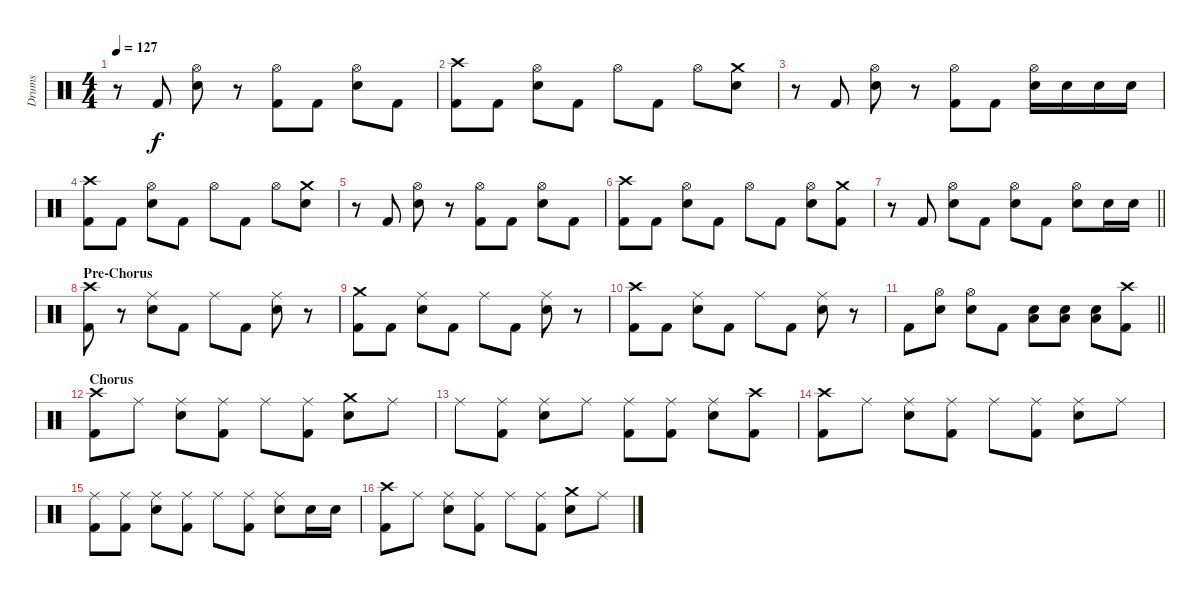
\track ("Drums" "Drums") {instrument percussion}
\staff {score}
\articulation defaults
\ts (4 4)
\tempo 127
\clef neutral
\ks c
r.8{dy f} "Kick (hit) 2".8 ("Hi-Hat (open)" "Electric Snare (hit)").8 r.8 ("Hi-Hat (open)" "Kick (hit) 2").8 "Kick (hit) 2".8 ("Hi-Hat (open)" "Electric Snare (hit)").8 "Kick (hit) 2".8 |
("Crash high (hit)" "Kick (hit) 2").8 "Kick (hit) 2".8 ("Hi-Hat (open)" "Electric Snare (hit)").8 "Kick (hit) 2".8 "Hi-Hat (open)".8 "Kick (hit) 2".8 "Hi-Hat (open)".8 ("Crash medium (hit)" "Electric Snare (hit)").8 |
r.8 "Kick (hit) 2".8 ("Hi-Hat (open)" "Electric Snare (hit)").8 r.8 ("Hi-Hat (open)" "Kick (hit) 2").8 "Kick (hit) 2".8 ("Hi-Hat (open)" "Electric Snare (hit)").16 "Electric Snare (hit)".16 "Electric Snare (hit)".16 "Electric Snare (hit)".16 |
("Crash high (hit)" "Kick (hit) 2").8 "Kick (hit) 2".8 ("Hi-Hat (open)" "Electric Snare (hit)").8 "Kick (hit) 2".8 "Hi-Hat (open)".8 "Kick (hit) 2".8 "Hi-Hat (open)".8 ("Crash medium (hit)" "Electric Snare (hit)").8 |
r.8 "Kick (hit) 2".8 ("Hi-Hat (open)" "Electric Snare (hit)").8 r.8 ("Hi-Hat (open)" "Kick (hit) 2").8 "Kick (hit) 2".8 ("Hi-Hat (open)" "Electric Snare (hit)").8 "Kick (hit) 2".8 |
("Crash high (hit)" "Kick (hit) 2").8 "Kick (hit) 2".8 ("Hi-Hat (open)" "Electric Snare (hit)").8 "Kick (hit) 2".8 "Hi-Hat (open)".8 "Kick (hit) 2".8 ("Hi-Hat (open)" "Electric Snare (hit)").8 ("Crash medium (hit)" "Kick (hit) 2").8 |
\barLineRight lightlight
r.8 "Kick (hit) 2".8 ("Hi-Hat (open)" "Electric Snare (hit)").8 "Kick (hit) 2".8 ("Hi-Hat (open)" "Electric Snare (hit)").8 "Kick (hit) 2".8 ("Hi-Hat (open)" "Electric Snare (hit)").8 "Electric Snare (hit)".16 "Electric Snare (hit)".16 |
\section ("" "Pre-Chorus")
("Crash high (hit)" "Kick (hit) 2").8 r.8 ("Ride (middle)" "Electric Snare (hit)").8 "Kick (hit) 2".8 "Ride (middle)".8 "Kick (hit) 2".8 ("Ride (middle)" "Electric Snare (hit)").8 r.8 |
("Crash medium (hit)" "Kick (hit) 2").8 "Kick (hit) 2".8 ("Ride (middle)" "Electric Snare (hit)").8 "Kick (hit) 2".8 "Ride (middle)".8 "Kick (hit) 2".8 ("Ride (middle)" "Electric Snare (hit)").8 r.8 |
("Crash high (hit)" "Kick (hit) 2").8 "Kick (hit) 2".8 ("Ride (middle)" "Electric Snare (hit)").8 "Kick (hit) 2".8 "Ride (middle)".8 "Kick (hit) 2".8 ("Ride (middle)" "Electric Snare (hit)").8 r.8 |
\barLineRight lightlight "Kick (hit) 2".8
("Hi-Hat (open)" "Electric Snare (hit)").8 ("Hi-Hat (open)" "Electric Snare (hit)").8 "Kick (hit) 2".8 ("Low Floor Tom (hit)" "Electric Snare (hit)").8 ("Low Floor Tom (hit)" "Electric Snare (hit)").8 ("Low Floor Tom (hit)" "Electric Snare (hit)").8 ("Crash high (hit)" "Kick (hit) 2").8 |
\section ("" "Chorus")
("Crash high (hit)" "Kick (hit) 2").8 "Ride (middle)".8 ("Ride (middle)" "Electric Snare (hit)").8 ("Ride (middle)" "Kick (hit) 2").8 "Ride (middle)".8 ("Ride (middle)" "Kick (hit) 2").8 ("Crash medium (hit)" "Electric Snare (hit)").8 "Ride (middle)".8 |
"Ride (middle)".8 ("Ride (middle)" "Kick (hit) 2").8 ("Ride (middle)" "Electric Snare (hit)").8 "Ride (middle)".8 ("Ride (middle)" "Kick (hit) 2").8 ("Ride (middle)" "Kick (hit) 2").8 ("Ride (middle)" "Electric Snare (hit)").8 ("Crash high (hit)" "Kick (hit) 2").8 |
("Crash high (hit)" "Kick (hit) 2").8 "Ride (middle)".8 ("Ride (middle)" "Electric Snare (hit)").8 ("Ride (middle)" "Kick (hit) 2").8 "Ride (middle)".8 ("Ride (middle)" "Kick (hit) 2").8 ("Ride (middle)" "Electric Snare (hit)").8 "Ride (middle)".8 |
("Ride (middle)" "Kick (hit) 2").8 ("Ride (middle)" "Kick (hit) 2").8 ("Ride (middle)" "Electric Snare (hit)").8 ("Ride (middle)" "Kick (hit) 2").8 "Ride (middle)".8 ("Ride (middle)" "Kick (hit) 2").8 ("Ride (middle)" "Electric Snare (hit)").8 "Electric Snare (hit)".16 "Electric Snare (hit)".16 |
("Crash high (hit)" "Kick (hit) 2").8 "Ride (middle)".8 ("Ride (middle)" "Electric Snare (hit)").8 ("Ride (middle)" "Kick (hit) 2").8 "Ride (middle)".8 ("Ride (middle)" "Kick (hit) 2").8 ("Crash medium (hit)" "Electric Snare (hit)").8 "Ride (middle)".8
